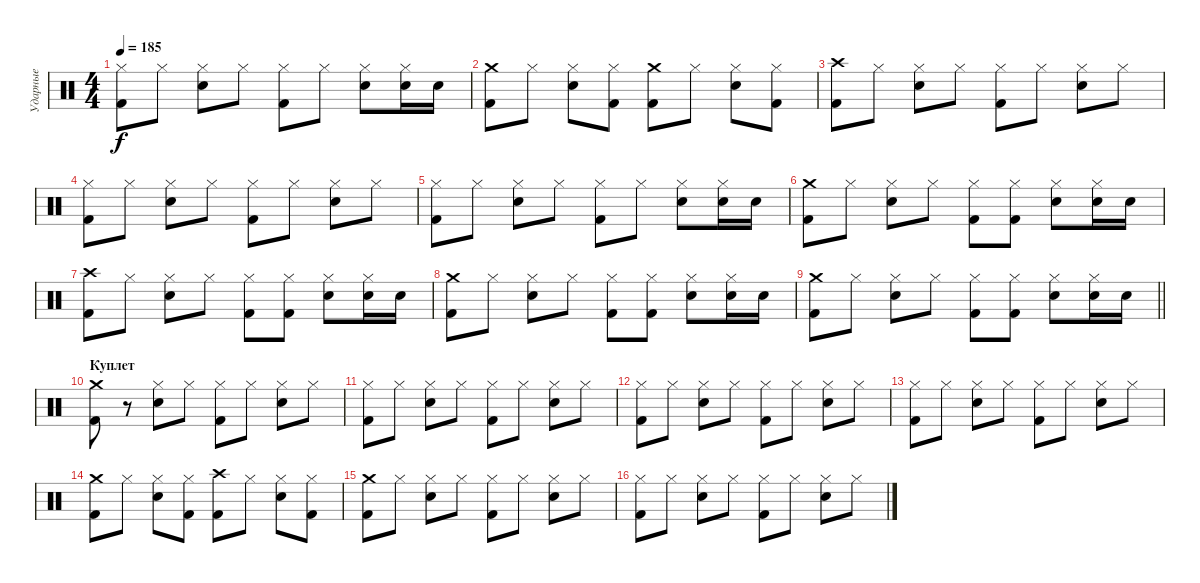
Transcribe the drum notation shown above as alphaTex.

\track ("Ударные" "Ударные") {instrument percussion}
\staff {score}
\articulation defaults
\ts (4 4)
\tempo 185
\clef neutral
\ks c
("Hi-Hat (closed)" "Kick (hit) 2").8{dy f} "Hi-Hat (closed)".8 ("Hi-Hat (closed)" "Electric Snare (hit)").8 "Hi-Hat (closed)".8 ("Hi-Hat (closed)" "Kick (hit) 2").8 "Hi-Hat (closed)".8 ("Hi-Hat (closed)" "Electric Snare (hit)").8 ("Hi-Hat (closed)" "Electric Snare (hit)").16 "Electric Snare (hit)".16 |
("Crash medium (hit)" "Kick (hit) 2").8 "Hi-Hat (closed)".8 ("Hi-Hat (closed)" "Electric Snare (hit)").8 ("Hi-Hat (closed)" "Kick (hit) 2").8 ("Crash medium (hit)" "Kick (hit) 2").8 "Hi-Hat (closed)".8 ("Hi-Hat (closed)" "Electric Snare (hit)").8 ("Hi-Hat (closed)" "Kick (hit) 2").8 |
("Crash high (hit)" "Kick (hit) 2").8 "Hi-Hat (closed)".8 ("Hi-Hat (closed)" "Electric Snare (hit)").8 "Hi-Hat (closed)".8 ("Hi-Hat (closed)" "Kick (hit) 2").8 "Hi-Hat (closed)".8 ("Hi-Hat (closed)" "Electric Snare (hit)").8 "Hi-Hat (closed)".8 |
("Hi-Hat (closed)" "Kick (hit) 2").8 "Hi-Hat (closed)".8 ("Hi-Hat (closed)" "Electric Snare (hit)").8 "Hi-Hat (closed)".8 ("Hi-Hat (closed)" "Kick (hit) 2").8 "Hi-Hat (closed)".8 ("Hi-Hat (closed)" "Electric Snare (hit)").8 "Hi-Hat (closed)".8 |
("Hi-Hat (closed)" "Kick (hit) 2").8 "Hi-Hat (closed)".8 ("Hi-Hat (closed)" "Electric Snare (hit)").8 "Hi-Hat (closed)".8 ("Hi-Hat (closed)" "Kick (hit) 2").8 "Hi-Hat (closed)".8 ("Hi-Hat (closed)" "Electric Snare (hit)").8 ("Hi-Hat (closed)" "Electric Snare (hit)").16 "Electric Snare (hit)".16 |
("Crash medium (hit)" "Kick (hit) 2").8 "Hi-Hat (closed)".8 ("Hi-Hat (closed)" "Electric Snare (hit)").8 "Hi-Hat (closed)".8 ("Hi-Hat (closed)" "Kick (hit) 2").8 ("Hi-Hat (closed)" "Kick (hit) 2").8 ("Hi-Hat (closed)" "Electric Snare (hit)").8 ("Hi-Hat (closed)" "Electric Snare (hit)").16 "Electric Snare (hit)".16 |
("Crash high (hit)" "Kick (hit) 2").8 "Hi-Hat (closed)".8 ("Hi-Hat (closed)" "Electric Snare (hit)").8 "Hi-Hat (closed)".8 ("Hi-Hat (closed)" "Kick (hit) 2").8 ("Hi-Hat (closed)" "Kick (hit) 2").8 ("Hi-Hat (closed)" "Electric Snare (hit)").8 ("Hi-Hat (closed)" "Electric Snare (hit)").16 "Electric Snare (hit)".16 |
("Crash medium (hit)" "Kick (hit) 2").8 "Hi-Hat (closed)".8 ("Hi-Hat (closed)" "Electric Snare (hit)").8 "Hi-Hat (closed)".8 ("Hi-Hat (closed)" "Kick (hit) 2").8 ("Hi-Hat (closed)" "Kick (hit) 2").8 ("Hi-Hat (closed)" "Electric Snare (hit)").8 ("Hi-Hat (closed)" "Electric Snare (hit)").16 "Electric Snare (hit)".16 |
\barLineRight lightlight
("Crash medium (hit)" "Kick (hit) 2").8 "Hi-Hat (closed)".8 ("Hi-Hat (closed)" "Electric Snare (hit)").8 "Hi-Hat (closed)".8 ("Hi-Hat (closed)" "Kick (hit) 2").8 ("Hi-Hat (closed)" "Kick (hit) 2").8 ("Hi-Hat (closed)" "Electric Snare (hit)").8 ("Hi-Hat (closed)" "Electric Snare (hit)").16 "Electric Snare (hit)".16 |
\section ("" "Куплет")
("Kick (hit) 2" "Crash medium (hit)").8 r.8 ("Hi-Hat (closed)" "Electric Snare (hit)").8 "Hi-Hat (closed)".8 ("Hi-Hat (closed)" "Kick (hit) 2").8 "Hi-Hat (closed)".8 ("Hi-Hat (closed)" "Electric Snare (hit)").8 "Hi-Hat (closed)".8 |
("Hi-Hat (closed)" "Kick (hit) 2").8 "Hi-Hat (closed)".8 ("Hi-Hat (closed)" "Electric Snare (hit)").8 "Hi-Hat (closed)".8 ("Hi-Hat (closed)" "Kick (hit) 2").8 "Hi-Hat (closed)".8 ("Hi-Hat (closed)" "Electric Snare (hit)").8 "Hi-Hat (closed)".8 |
("Hi-Hat (closed)" "Kick (hit) 2").8 "Hi-Hat (closed)".8 ("Hi-Hat (closed)" "Electric Snare (hit)").8 "Hi-Hat (closed)".8 ("Hi-Hat (closed)" "Kick (hit) 2").8 "Hi-Hat (closed)".8 ("Hi-Hat (closed)" "Electric Snare (hit)").8 "Hi-Hat (closed)".8 |
("Hi-Hat (closed)" "Kick (hit) 2").8 "Hi-Hat (closed)".8 ("Hi-Hat (closed)" "Electric Snare (hit)").8 "Hi-Hat (closed)".8 ("Hi-Hat (closed)" "Kick (hit) 2").8 "Hi-Hat (closed)".8 ("Hi-Hat (closed)" "Electric Snare (hit)").8 "Hi-Hat (closed)".8 |
("Crash medium (hit)" "Kick (hit) 2").8 "Hi-Hat (closed)".8 ("Hi-Hat (closed)" "Electric Snare (hit)").8 ("Hi-Hat (closed)" "Kick (hit) 2").8 ("Crash high (hit)" "Kick (hit) 2").8 "Hi-Hat (closed)".8 ("Hi-Hat (closed)" "Electric Snare (hit)").8 ("Hi-Hat (closed)" "Kick (hit) 2").8 |
("Crash medium (hit)" "Kick (hit) 2").8 "Hi-Hat (closed)".8 ("Hi-Hat (closed)" "Electric Snare (hit)").8 "Hi-Hat (closed)".8 ("Hi-Hat (closed)" "Kick (hit) 2").8 "Hi-Hat (closed)".8 ("Hi-Hat (closed)" "Electric Snare (hit)").8 "Hi-Hat (closed)".8 |
("Hi-Hat (closed)" "Kick (hit) 2").8 "Hi-Hat (closed)".8 ("Hi-Hat (closed)" "Electric Snare (hit)").8 "Hi-Hat (closed)".8 ("Hi-Hat (closed)" "Kick (hit) 2").8 "Hi-Hat (closed)".8 ("Hi-Hat (closed)" "Electric Snare (hit)").8 "Hi-Hat (closed)".8
